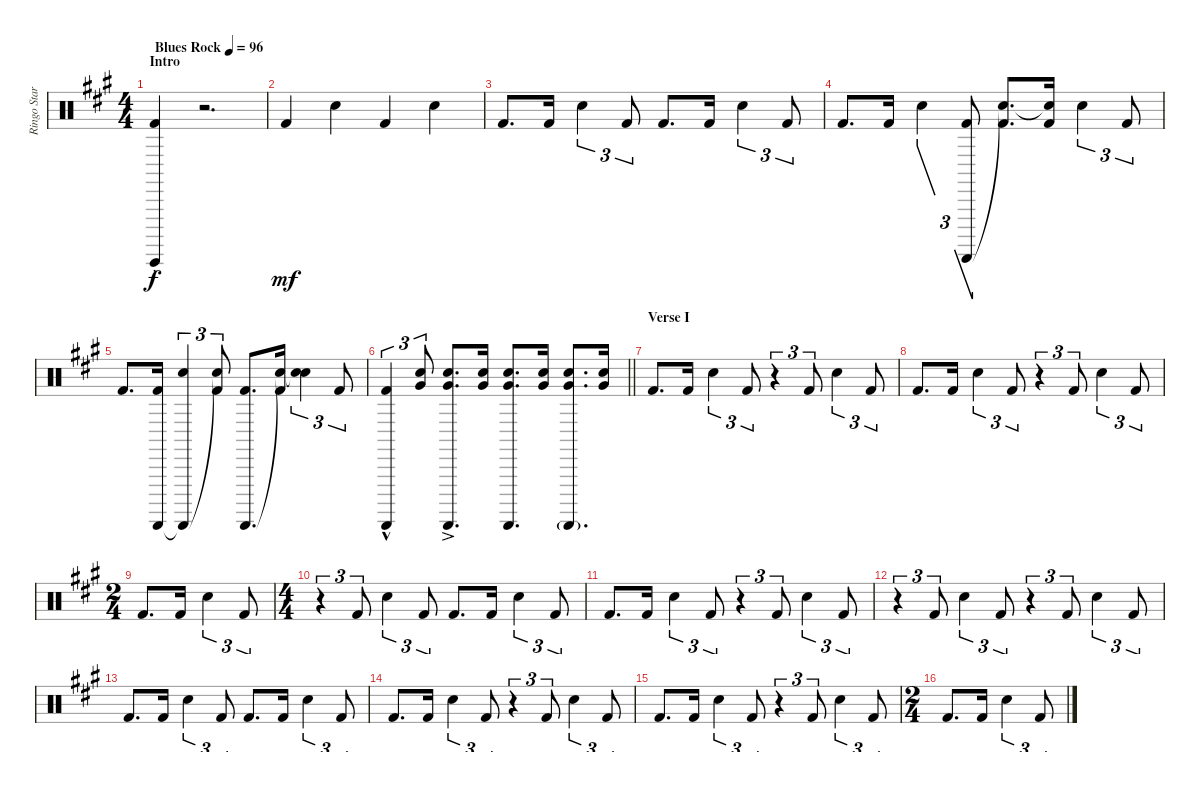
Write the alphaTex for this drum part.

\track ("Ringo Starr - Drums" "Ringo Star") {instrument percussion}
\staff {score}
\articulation defaults
\ts (4 4)
\section ("" "Intro")
\tempo (96 "Blues Rock")
\clef neutral
\ks a
("Guiro (hit)"{st} "Kick (hit) 2").4{dy f} r.2{d} |
"Kick (hit) 2".4{dy mf} "Electric Snare (hit)".4 "Kick (hit) 2".4 "Electric Snare (hit)".4 |
"Kick (hit) 2".8{d} "Kick (hit) 2".16 "Snare (hit) 2".4{tu (3 2)} "Kick (hit) 2".8{tu (3 2)} "Kick (hit) 2".8{d} "Kick (hit) 2".16 "Snare (hit) 2".4{tu (3 2)} "Kick (hit) 2".8{tu (3 2)} |
"Kick (hit) 2".8{d} "Kick (hit) 2".16 "Snare (hit) 2".4{tu (3 2)} ("Guiro (scrap-return)" "Kick (hit) 2").8{tu (3 2)} ("Snare (hit)"{t} "Kick (hit) 2").8{d} ("Snare (hit)"{t} "Kick (hit) 2").16 "Snare (hit) 2".4{tu (3 2)} "Kick (hit) 2".8{tu (3 2)} |
"Kick (hit) 2".8{d} ("Guiro (scrap-return)" "Kick (hit) 2").16 ("Guiro (scrap-return)"{t} "Snare (hit) 2").4{tu (3 2)} ("Snare (hit)"{t} "Kick (hit) 2").8{tu (3 2)} ("Guiro (scrap-return)" "Kick (hit) 2").8{d} ("Snare (hit)"{t} "Kick (hit) 2").16 ("Snare (hit)"{t} "Snare (hit) 2").4{tu (3 2)} "Kick (hit) 2".8{tu (3 2)} |
\barLineRight lightlight
("Guiro (scrap-return)"{hac} "Kick (hit) 2").4{tu (3 2)} ("Snare (hit) 2" "Very Low Tom (hit)").8{tu (3 2)} ("Guiro (scrap-return)"{ac} "Snare (hit) 2" "Very Low Tom (hit)").8{d} ("Snare (hit) 2" "Very Low Tom (hit)").16 ("Guiro (scrap-return)" "Snare (hit) 2" "Very Low Tom (hit)").8{d} ("Snare (hit) 2" "Very Low Tom (hit)").16 ("Guiro (scrap-return)"{g} "Snare (hit) 2" "Very Low Tom (hit)").8{d} ("Snare (hit) 2" "Very Low Tom (hit)").16 |
\section ("" "Verse I")
"Kick (hit) 2".8{d} "Kick (hit) 2".16 "Snare (hit) 2".4{tu (3 2)} "Kick (hit) 2".8{tu (3 2)} r.4{tu (3 2)} "Kick (hit) 2".8{tu (3 2)} "Snare (hit) 2".4{tu (3 2)} "Kick (hit) 2".8{tu (3 2)} |
"Kick (hit) 2".8{d} "Kick (hit) 2".16 "Snare (hit) 2".4{tu (3 2)} "Kick (hit) 2".8{tu (3 2)} r.4{tu (3 2)} "Kick (hit) 2".8{tu (3 2)} "Snare (hit) 2".4{tu (3 2)} "Kick (hit) 2".8{tu (3 2)} |
\ts (2 4)
"Kick (hit) 2".8{d} "Kick (hit) 2".16 "Snare (hit) 2".4{tu (3 2)} "Kick (hit) 2".8{tu (3 2)} |
\ts (4 4)
r.4{tu (3 2)} "Kick (hit) 2".8{tu (3 2)} "Snare (hit) 2".4{tu (3 2)} "Kick (hit) 2".8{tu (3 2)} "Kick (hit) 2".8{d} "Kick (hit) 2".16 "Snare (hit) 2".4{tu (3 2)} "Kick (hit) 2".8{tu (3 2)} |
"Kick (hit) 2".8{d} "Kick (hit) 2".16 "Snare (hit) 2".4{tu (3 2)} "Kick (hit) 2".8{tu (3 2)} r.4{tu (3 2)} "Kick (hit) 2".8{tu (3 2)} "Snare (hit) 2".4{tu (3 2)} "Kick (hit) 2".8{tu (3 2)} |
r.4{tu (3 2)} "Kick (hit) 2".8{tu (3 2)} "Snare (hit) 2".4{tu (3 2)} "Kick (hit) 2".8{tu (3 2)} r.4{tu (3 2)} "Kick (hit) 2".8{tu (3 2)} "Snare (hit) 2".4{tu (3 2)} "Kick (hit) 2".8{tu (3 2)} |
"Kick (hit) 2".8{d} "Kick (hit) 2".16 "Snare (hit) 2".4{tu (3 2)} "Kick (hit) 2".8{tu (3 2)} "Kick (hit) 2".8{d} "Kick (hit) 2".16 "Snare (hit) 2".4{tu (3 2)} "Kick (hit) 2".8{tu (3 2)} |
"Kick (hit) 2".8{d} "Kick (hit) 2".16 "Snare (hit) 2".4{tu (3 2)} "Kick (hit) 2".8{tu (3 2)} r.4{tu (3 2)} "Kick (hit) 2".8{tu (3 2)} "Snare (hit) 2".4{tu (3 2)} "Kick (hit) 2".8{tu (3 2)} |
"Kick (hit) 2".8{d} "Kick (hit) 2".16 "Snare (hit) 2".4{tu (3 2)} "Kick (hit) 2".8{tu (3 2)} r.4{tu (3 2)} "Kick (hit) 2".8{tu (3 2)} "Snare (hit) 2".4{tu (3 2)} "Kick (hit) 2".8{tu (3 2)} |
\ts (2 4)
"Kick (hit) 2".8{d} "Kick (hit) 2".16 "Snare (hit) 2".4{tu (3 2)} "Kick (hit) 2".8{tu (3 2)}
